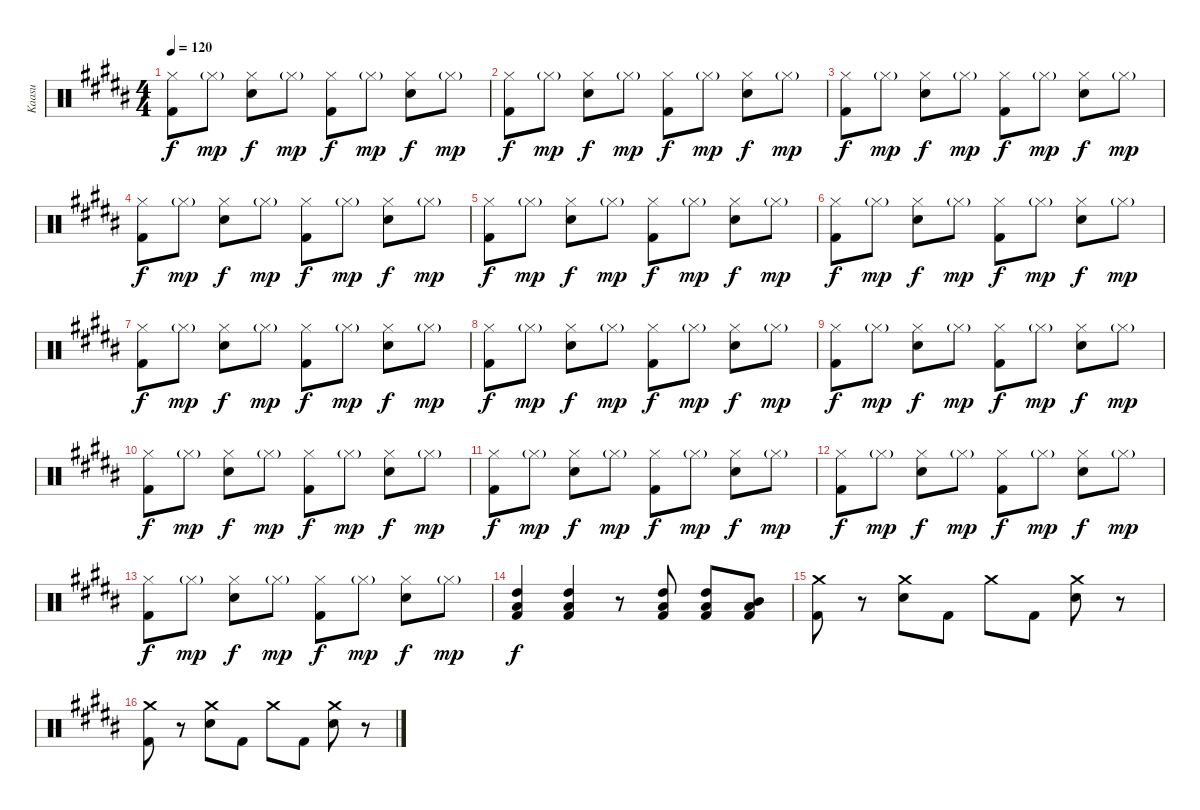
\track ("Kaasu" "Kaasu") {instrument percussion}
\staff {score}
\articulation defaults
\ts (4 4)
\tempo 120
\clef neutral
\ks b
("Hi-Hat (closed)" "Kick (hit) 2").8{dy f} "Hi-Hat (closed)"{g}.8{dy mp} ("Hi-Hat (closed)" "Snare (hit) 2").8{dy f} "Hi-Hat (closed)"{g}.8{dy mp} ("Hi-Hat (closed)" "Kick (hit) 2").8{dy f} "Hi-Hat (closed)"{g}.8{dy mp} ("Hi-Hat (closed)" "Snare (hit) 2").8{dy f} "Hi-Hat (closed)"{g}.8{dy mp} |
("Hi-Hat (closed)" "Kick (hit) 2").8{dy f} "Hi-Hat (closed)"{g}.8{dy mp} ("Hi-Hat (closed)" "Snare (hit) 2").8{dy f} "Hi-Hat (closed)"{g}.8{dy mp} ("Hi-Hat (closed)" "Kick (hit) 2").8{dy f} "Hi-Hat (closed)"{g}.8{dy mp} ("Hi-Hat (closed)" "Snare (hit) 2").8{dy f} "Hi-Hat (closed)"{g}.8{dy mp} |
("Hi-Hat (closed)" "Kick (hit) 2").8{dy f} "Hi-Hat (closed)"{g}.8{dy mp} ("Hi-Hat (closed)" "Snare (hit) 2").8{dy f} "Hi-Hat (closed)"{g}.8{dy mp} ("Hi-Hat (closed)" "Kick (hit) 2").8{dy f} "Hi-Hat (closed)"{g}.8{dy mp} ("Hi-Hat (closed)" "Snare (hit) 2").8{dy f} "Hi-Hat (closed)"{g}.8{dy mp} |
("Hi-Hat (closed)" "Kick (hit) 2").8{dy f} "Hi-Hat (closed)"{g}.8{dy mp} ("Hi-Hat (closed)" "Snare (hit) 2").8{dy f} "Hi-Hat (closed)"{g}.8{dy mp} ("Hi-Hat (closed)" "Kick (hit) 2").8{dy f} "Hi-Hat (closed)"{g}.8{dy mp} ("Hi-Hat (closed)" "Snare (hit) 2").8{dy f} "Hi-Hat (closed)"{g}.8{dy mp} |
("Hi-Hat (closed)" "Kick (hit) 2").8{dy f} "Hi-Hat (closed)"{g}.8{dy mp} ("Hi-Hat (closed)" "Snare (hit) 2").8{dy f} "Hi-Hat (closed)"{g}.8{dy mp} ("Hi-Hat (closed)" "Kick (hit) 2").8{dy f} "Hi-Hat (closed)"{g}.8{dy mp} ("Hi-Hat (closed)" "Snare (hit) 2").8{dy f} "Hi-Hat (closed)"{g}.8{dy mp} |
("Hi-Hat (closed)" "Kick (hit) 2").8{dy f} "Hi-Hat (closed)"{g}.8{dy mp} ("Hi-Hat (closed)" "Snare (hit) 2").8{dy f} "Hi-Hat (closed)"{g}.8{dy mp} ("Hi-Hat (closed)" "Kick (hit) 2").8{dy f} "Hi-Hat (closed)"{g}.8{dy mp} ("Hi-Hat (closed)" "Snare (hit) 2").8{dy f} "Hi-Hat (closed)"{g}.8{dy mp} |
("Hi-Hat (closed)" "Kick (hit) 2").8{dy f} "Hi-Hat (closed)"{g}.8{dy mp} ("Hi-Hat (closed)" "Snare (hit) 2").8{dy f} "Hi-Hat (closed)"{g}.8{dy mp} ("Hi-Hat (closed)" "Kick (hit) 2").8{dy f} "Hi-Hat (closed)"{g}.8{dy mp} ("Hi-Hat (closed)" "Snare (hit) 2").8{dy f} "Hi-Hat (closed)"{g}.8{dy mp} |
("Hi-Hat (closed)" "Kick (hit) 2").8{dy f} "Hi-Hat (closed)"{g}.8{dy mp} ("Hi-Hat (closed)" "Snare (hit) 2").8{dy f} "Hi-Hat (closed)"{g}.8{dy mp} ("Hi-Hat (closed)" "Kick (hit) 2").8{dy f} "Hi-Hat (closed)"{g}.8{dy mp} ("Hi-Hat (closed)" "Snare (hit) 2").8{dy f} "Hi-Hat (closed)"{g}.8{dy mp} |
("Hi-Hat (closed)" "Kick (hit) 2").8{dy f} "Hi-Hat (closed)"{g}.8{dy mp} ("Hi-Hat (closed)" "Snare (hit) 2").8{dy f} "Hi-Hat (closed)"{g}.8{dy mp} ("Hi-Hat (closed)" "Kick (hit) 2").8{dy f} "Hi-Hat (closed)"{g}.8{dy mp} ("Hi-Hat (closed)" "Snare (hit) 2").8{dy f} "Hi-Hat (closed)"{g}.8{dy mp} |
("Hi-Hat (closed)" "Kick (hit) 2").8{dy f} "Hi-Hat (closed)"{g}.8{dy mp} ("Hi-Hat (closed)" "Snare (hit) 2").8{dy f} "Hi-Hat (closed)"{g}.8{dy mp} ("Hi-Hat (closed)" "Kick (hit) 2").8{dy f} "Hi-Hat (closed)"{g}.8{dy mp} ("Hi-Hat (closed)" "Snare (hit) 2").8{dy f} "Hi-Hat (closed)"{g}.8{dy mp} |
("Hi-Hat (closed)" "Kick (hit) 2").8{dy f} "Hi-Hat (closed)"{g}.8{dy mp} ("Hi-Hat (closed)" "Snare (hit) 2").8{dy f} "Hi-Hat (closed)"{g}.8{dy mp} ("Hi-Hat (closed)" "Kick (hit) 2").8{dy f} "Hi-Hat (closed)"{g}.8{dy mp} ("Hi-Hat (closed)" "Snare (hit) 2").8{dy f} "Hi-Hat (closed)"{g}.8{dy mp} |
("Hi-Hat (closed)" "Kick (hit) 2").8{dy f} "Hi-Hat (closed)"{g}.8{dy mp} ("Hi-Hat (closed)" "Snare (hit) 2").8{dy f} "Hi-Hat (closed)"{g}.8{dy mp} ("Hi-Hat (closed)" "Kick (hit) 2").8{dy f} "Hi-Hat (closed)"{g}.8{dy mp} ("Hi-Hat (closed)" "Snare (hit) 2").8{dy f} "Hi-Hat (closed)"{g}.8{dy mp} |
("Hi-Hat (closed)" "Kick (hit) 2").8{dy f} "Hi-Hat (closed)"{g}.8{dy mp} ("Hi-Hat (closed)" "Snare (hit) 2").8{dy f} "Hi-Hat (closed)"{g}.8{dy mp} ("Hi-Hat (closed)" "Kick (hit) 2").8{dy f} "Hi-Hat (closed)"{g}.8{dy mp} ("Hi-Hat (closed)" "Snare (hit) 2").8{dy f} "Hi-Hat (closed)"{g}.8{dy mp} |
("High Tom (hit)" "Low Tom (hit)" "Kick (hit) 2").4{dy f} ("High Tom (hit)" "Low Tom (hit)" "Kick (hit) 2").4 r.8 ("High Tom (hit)" "Low Tom (hit)" "Kick (hit) 2").8 ("High Tom (hit)" "Low Tom (hit)" "Kick (hit) 2").8 ("Mid Tom (hit)" "Low Tom (hit)" "Kick (hit) 2").8 |
("Crash medium (hit)" "Kick (hit) 2").8{volume 13} r.8 ("Crash medium (hit)" "Snare (hit) 2").8 "Kick (hit) 2".8 "Crash medium (hit)".8 "Kick (hit) 2".8 ("Crash medium (hit)" "Snare (hit) 2").8 r.8 |
("Crash medium (hit)" "Kick (hit) 2").8{volume 13} r.8 ("Crash medium (hit)" "Snare (hit) 2").8 "Kick (hit) 2".8 "Crash medium (hit)".8 "Kick (hit) 2".8 ("Crash medium (hit)" "Snare (hit) 2").8 r.8
